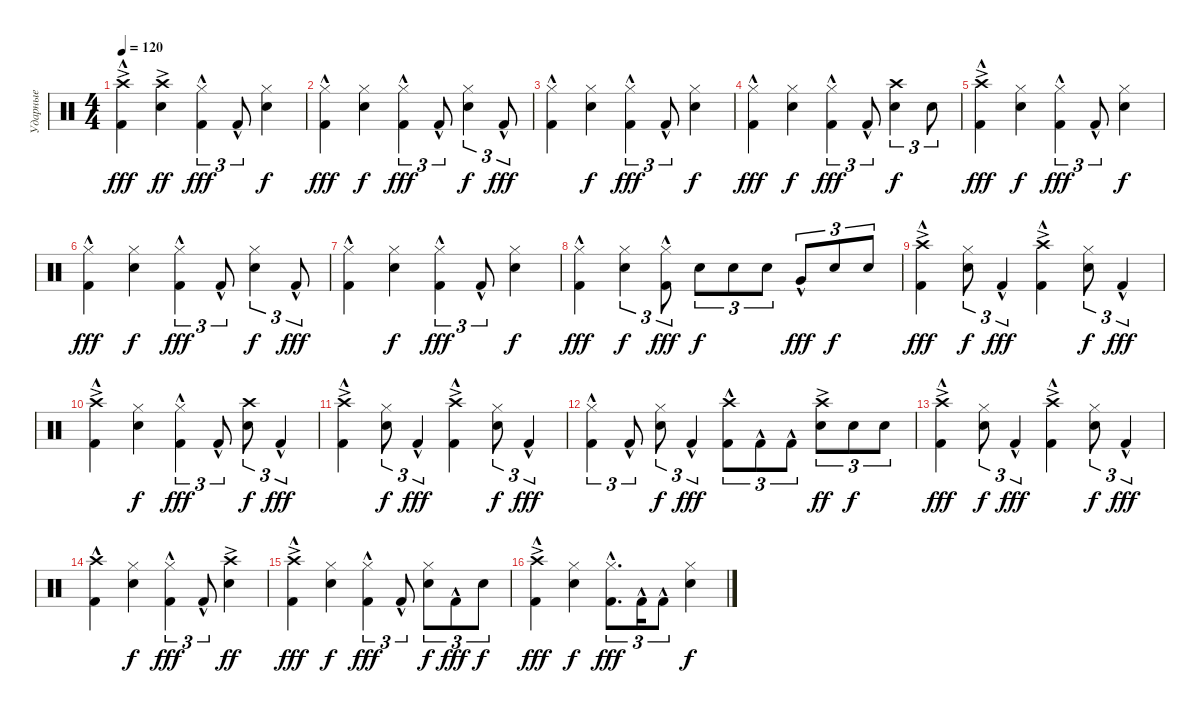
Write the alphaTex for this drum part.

\track ("Ударные" "Ударные") {instrument percussion}
\staff {score}
\articulation defaults
\ts (4 4)
\tempo 120
\clef neutral
\ks c
("Crash high (hit)"{ac} "Kick (hit) 2"{hac}).4{dy fff} ("Crash high (hit)"{ac} "Snare (hit) 2").4{dy ff} ("Hi-Hat (closed)" "Kick (hit) 2"{hac}).4{tu (3 2) dy fff} "Kick (hit) 2"{hac}.8{tu (3 2)} ("Hi-Hat (closed)" "Snare (hit) 2").4{dy f} |
("Hi-Hat (closed)" "Kick (hit) 2"{hac}).4{dy fff} ("Hi-Hat (closed)" "Snare (hit) 2").4{dy f} ("Hi-Hat (closed)" "Kick (hit) 2"{hac}).4{tu (3 2) dy fff} "Kick (hit) 2"{hac}.8{tu (3 2)} ("Hi-Hat (closed)" "Snare (hit) 2").4{tu (3 2) dy f} "Kick (hit) 2"{hac}.8{tu (3 2) dy fff} |
("Hi-Hat (closed)" "Kick (hit) 2"{hac}).4 ("Hi-Hat (closed)" "Snare (hit) 2").4{dy f} ("Hi-Hat (closed)" "Kick (hit) 2"{hac}).4{tu (3 2) dy fff} "Kick (hit) 2"{hac}.8{tu (3 2)} ("Hi-Hat (closed)" "Snare (hit) 2").4{dy f} |
("Hi-Hat (closed)" "Kick (hit) 2"{hac}).4{dy fff} ("Hi-Hat (closed)" "Snare (hit) 2").4{dy f} ("Hi-Hat (closed)" "Kick (hit) 2"{hac}).4{tu (3 2) dy fff} "Kick (hit) 2"{hac}.8{tu (3 2)} ("Crash high (hit)" "Snare (hit) 2").4{tu (3 2) dy f} "Snare (hit) 2".8{tu (3 2)} |
("Crash high (hit)"{ac} "Kick (hit) 2"{hac}).4{dy fff} ("Hi-Hat (closed)" "Snare (hit) 2").4{dy f} ("Hi-Hat (closed)" "Kick (hit) 2"{hac}).4{tu (3 2) dy fff} "Kick (hit) 2"{hac}.8{tu (3 2)} ("Hi-Hat (closed)" "Snare (hit) 2").4{dy f} |
("Hi-Hat (closed)" "Kick (hit) 2"{hac}).4{dy fff} ("Hi-Hat (closed)" "Snare (hit) 2").4{dy f} ("Hi-Hat (closed)" "Kick (hit) 2"{hac}).4{tu (3 2) dy fff} "Kick (hit) 2"{hac}.8{tu (3 2)} ("Hi-Hat (closed)" "Snare (hit) 2").4{tu (3 2) dy f} "Kick (hit) 2"{hac}.8{tu (3 2) dy fff} |
("Hi-Hat (closed)" "Kick (hit) 2"{hac}).4 ("Hi-Hat (closed)" "Snare (hit) 2").4{dy f} ("Hi-Hat (closed)" "Kick (hit) 2"{hac}).4{tu (3 2) dy fff} "Kick (hit) 2"{hac}.8{tu (3 2)} ("Hi-Hat (closed)" "Snare (hit) 2").4{dy f} |
("Hi-Hat (closed)" "Kick (hit) 2"{hac}).4{dy fff} ("Hi-Hat (closed)" "Snare (hit) 2").4{tu (3 2) dy f} ("Hi-Hat (closed)" "Kick (hit) 2"{hac}).8{tu (3 2) dy fff} "Snare (hit) 2".8{tu (3 2) dy f} "Snare (hit) 2".8{tu (3 2)} "Snare (hit) 2".8{tu (3 2)} "Very Low Tom (hit)"{hac}.8{tu (3 2) dy fff} "Snare (hit) 2".8{tu (3 2) dy f} "Snare (hit) 2".8{tu (3 2)} |
("Crash high (hit)"{ac} "Kick (hit) 2"{hac}).4{dy fff} ("Hi-Hat (closed)" "Snare (hit) 2").8{tu (3 2) dy f} "Kick (hit) 2"{hac}.4{tu (3 2) dy fff} ("Crash high (hit)"{ac} "Kick (hit) 2"{hac}).4 ("Hi-Hat (closed)" "Snare (hit) 2").8{tu (3 2) dy f} "Kick (hit) 2"{hac}.4{tu (3 2) dy fff} |
("Crash high (hit)"{ac} "Kick (hit) 2"{hac}).4 ("Hi-Hat (closed)" "Snare (hit) 2").4{dy f} ("Hi-Hat (closed)" "Kick (hit) 2"{hac}).4{tu (3 2) dy fff} "Kick (hit) 2"{hac}.8{tu (3 2)} ("Crash high (hit)" "Snare (hit) 2").8{tu (3 2) dy f} "Kick (hit) 2"{hac}.4{tu (3 2) dy fff} |
("Crash high (hit)"{ac} "Kick (hit) 2"{hac}).4 ("Hi-Hat (closed)" "Snare (hit) 2").8{tu (3 2) dy f} "Kick (hit) 2"{hac}.4{tu (3 2) dy fff} ("Crash high (hit)"{ac} "Kick (hit) 2"{hac}).4 ("Hi-Hat (closed)" "Snare (hit) 2").8{tu (3 2) dy f} "Kick (hit) 2"{hac}.4{tu (3 2) dy fff} |
("Hi-Hat (closed)" "Kick (hit) 2"{hac}).4{tu (3 2)} "Kick (hit) 2"{hac}.8{tu (3 2)} ("Hi-Hat (closed)" "Snare (hit) 2").8{tu (3 2) dy f} "Kick (hit) 2"{hac}.4{tu (3 2) dy fff} ("Crash high (hit)" "Kick (hit) 2"{hac}).8{tu (3 2)} "Kick (hit) 2"{hac}.8{tu (3 2)} "Kick (hit) 2"{hac}.8{tu (3 2)} ("Crash high (hit)"{ac} "Snare (hit) 2").8{tu (3 2) dy ff} "Snare (hit) 2".8{tu (3 2) dy f} "Snare (hit) 2".8{tu (3 2)} |
("Crash high (hit)"{ac} "Kick (hit) 2"{hac}).4{dy fff} ("Hi-Hat (closed)" "Snare (hit) 2").8{tu (3 2) dy f} "Kick (hit) 2"{hac}.4{tu (3 2) dy fff} ("Crash high (hit)"{ac} "Kick (hit) 2"{hac}).4 ("Hi-Hat (closed)" "Snare (hit) 2").8{tu (3 2) dy f} "Kick (hit) 2"{hac}.4{tu (3 2) dy fff} |
("Crash high (hit)" "Kick (hit) 2"{hac}).4 ("Hi-Hat (closed)" "Snare (hit) 2").4{dy f} ("Hi-Hat (closed)" "Kick (hit) 2"{hac}).4{tu (3 2) dy fff} "Kick (hit) 2"{hac}.8{tu (3 2)} ("Crash high (hit)"{ac} "Snare (hit) 2").4{dy ff} |
("Crash high (hit)"{ac} "Kick (hit) 2"{hac}).4{dy fff} ("Hi-Hat (closed)" "Snare (hit) 2").4{dy f} ("Hi-Hat (closed)" "Kick (hit) 2"{hac}).4{tu (3 2) dy fff} "Kick (hit) 2"{hac}.8{tu (3 2)} ("Hi-Hat (closed)" "Snare (hit) 2").8{tu (3 2) dy f} "Kick (hit) 2"{hac}.8{tu (3 2) dy fff} "Snare (hit) 2".8{tu (3 2) dy f} |
("Crash high (hit)"{ac} "Kick (hit) 2"{hac}).4{dy fff} ("Hi-Hat (closed)" "Snare (hit) 2").4{dy f} ("Hi-Hat (closed)" "Kick (hit) 2"{hac}).8{d tu (3 2) dy fff} "Kick (hit) 2"{hac}.16{tu (3 2)} "Kick (hit) 2"{hac}.8{tu (3 2)} ("Hi-Hat (closed)" "Snare (hit) 2").4{dy f}
